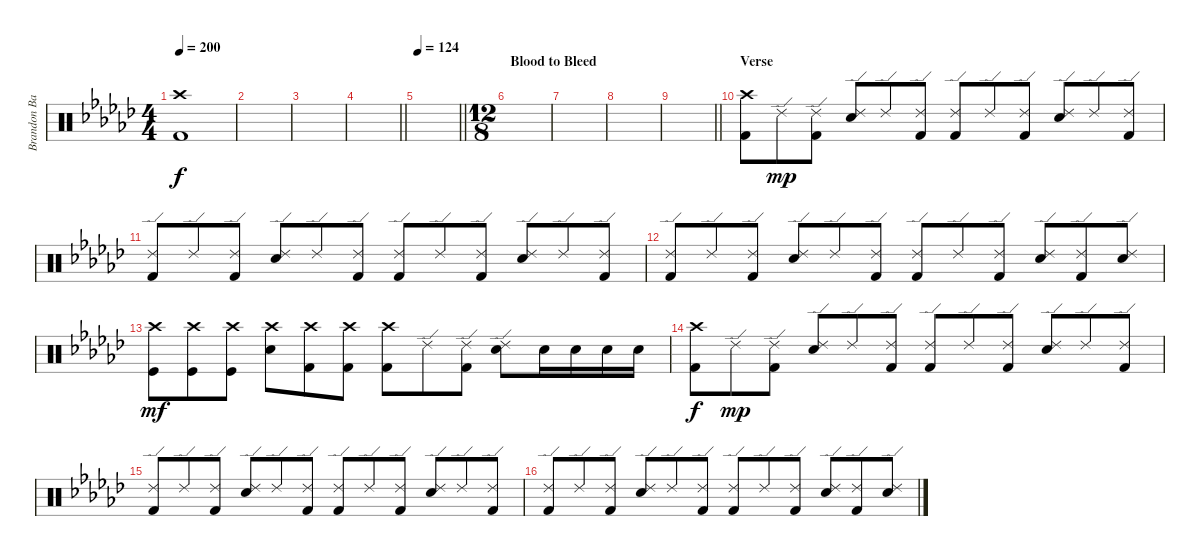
\track ("Brandon Barnes - Drums" "Brandon Ba") {instrument percussion}
\staff {score}
\articulation defaults
\ts (4 4)
\tempo 200
\clef neutral
\ks ebminor
("Kick (hit) 2" "Crash high (hit)").1{dy f} |
|
|
\barLineRight lightlight
|
\tempo 124
\barLineRight lightlight
|
\ts (12 8)
\section ("" "Blood to Bleed")
\ks gb
|
|
|
\barLineRight lightlight
|
\section ("" "Verse")
("Crash high (hit)" "Kick (hit) 2").8 "Ride (edge) 2".8{dy mp} ("Ride (edge) 2" "Kick (hit) 2").8 ("Ride (edge) 2" "Snare (hit) 2").8 "Ride (edge) 2".8 ("Ride (edge) 2" "Kick (hit) 2").8 ("Ride (edge) 2" "Kick (hit) 2").8 "Ride (edge) 2".8 ("Ride (edge) 2" "Kick (hit) 2").8 ("Ride (edge) 2" "Snare (hit) 2").8 "Ride (edge) 2".8 ("Ride (edge) 2" "Kick (hit) 2").8 |
("Ride (edge) 2" "Kick (hit) 2").8 "Ride (edge) 2".8 ("Ride (edge) 2" "Kick (hit) 2").8 ("Ride (edge) 2" "Snare (hit) 2").8 "Ride (edge) 2".8 ("Ride (edge) 2" "Kick (hit) 2").8 ("Ride (edge) 2" "Kick (hit) 2").8 "Ride (edge) 2".8 ("Ride (edge) 2" "Kick (hit) 2").8 ("Ride (edge) 2" "Snare (hit) 2").8 "Ride (edge) 2".8 ("Ride (edge) 2" "Kick (hit) 2").8 |
("Ride (edge) 2" "Kick (hit) 2").8 "Ride (edge) 2".8 ("Ride (edge) 2" "Kick (hit) 2").8 ("Ride (edge) 2" "Snare (hit) 2").8 "Ride (edge) 2".8 ("Ride (edge) 2" "Kick (hit) 2").8 ("Ride (edge) 2" "Kick (hit) 2").8 "Ride (edge) 2".8 ("Ride (edge) 2" "Kick (hit) 2").8 ("Ride (edge) 2" "Snare (hit) 2").8 ("Ride (edge) 2" "Kick (hit) 2").8 ("Ride (edge) 2" "Snare (hit) 2").8 |
("Crash high (hit)" "Kick (hit)").8{dy mf} ("Crash high (hit)" "Kick (hit)").8 ("Crash high (hit)" "Kick (hit)").8 ("Crash high (hit)" "Snare (hit) 2").8 ("Crash high (hit)" "Kick (hit) 2").8 ("Crash high (hit)" "Kick (hit) 2").8 ("Crash high (hit)" "Kick (hit) 2").8 "Ride (edge) 2".8 ("Ride (edge) 2" "Kick (hit) 2").8 ("Ride (edge) 2" "Snare (hit) 2").8 "Snare (hit) 2".16 "Snare (hit) 2".16 "Snare (hit) 2".16 "Snare (hit) 2".16 |
("Crash high (hit)" "Kick (hit) 2").8{dy f} "Ride (edge) 2".8{dy mp} ("Ride (edge) 2" "Kick (hit) 2").8 ("Ride (edge) 2" "Snare (hit) 2").8 "Ride (edge) 2".8 ("Ride (edge) 2" "Kick (hit) 2").8 ("Ride (edge) 2" "Kick (hit) 2").8 "Ride (edge) 2".8 ("Ride (edge) 2" "Kick (hit) 2").8 ("Ride (edge) 2" "Snare (hit) 2").8 "Ride (edge) 2".8 ("Ride (edge) 2" "Kick (hit) 2").8 |
("Ride (edge) 2" "Kick (hit) 2").8 "Ride (edge) 2".8 ("Ride (edge) 2" "Kick (hit) 2").8 ("Ride (edge) 2" "Snare (hit) 2").8 "Ride (edge) 2".8 ("Ride (edge) 2" "Kick (hit) 2").8 ("Ride (edge) 2" "Kick (hit) 2").8 "Ride (edge) 2".8 ("Ride (edge) 2" "Kick (hit) 2").8 ("Ride (edge) 2" "Snare (hit) 2").8 "Ride (edge) 2".8 ("Ride (edge) 2" "Kick (hit) 2").8 |
("Ride (edge) 2" "Kick (hit) 2").8 "Ride (edge) 2".8 ("Ride (edge) 2" "Kick (hit) 2").8 ("Ride (edge) 2" "Snare (hit) 2").8 "Ride (edge) 2".8 ("Ride (edge) 2" "Kick (hit) 2").8 ("Ride (edge) 2" "Kick (hit) 2").8 "Ride (edge) 2".8 ("Ride (edge) 2" "Kick (hit) 2").8 ("Ride (edge) 2" "Snare (hit) 2").8 ("Ride (edge) 2" "Kick (hit) 2").8 ("Ride (edge) 2" "Snare (hit) 2").8
